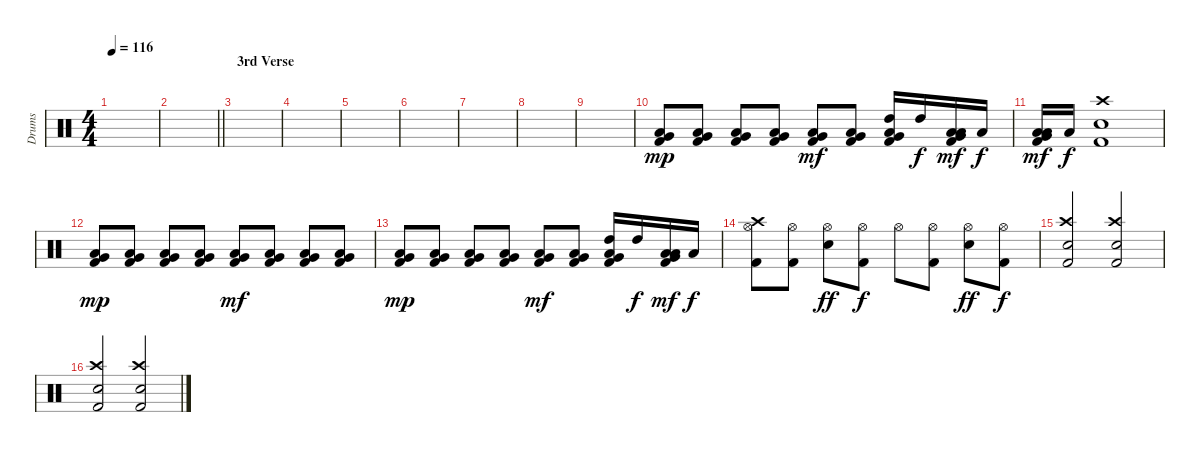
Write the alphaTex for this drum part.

\track ("Drums" "Drums") {instrument percussion}
\staff {score}
\articulation defaults
\ts (4 4)
\tempo 116
\clef neutral
\ks c
|
\barLineRight lightlight
|
\section ("" "3rd Verse")
|
|
|
|
|
|
|
("Very Low Tom (hit)" "Low Tom (hit)" "Kick (hit) 2").8{dy mp} ("Very Low Tom (hit)" "Low Tom (hit)" "Kick (hit) 2").8 ("Very Low Tom (hit)" "Low Tom (hit)" "Kick (hit) 2").8 ("Very Low Tom (hit)" "Low Tom (hit)" "Kick (hit) 2").8 ("Very Low Tom (hit)" "Low Tom (hit)" "Kick (hit) 2").8{dy mf} ("Very Low Tom (hit)" "Low Tom (hit)" "Kick (hit) 2").8 ("Very Low Tom (hit)" "Low Tom (hit)" "High Tom (hit)" "Kick (hit) 2").16 "High Tom (hit)".16{dy f} ("Very Low Tom (hit)" "Low Tom (hit)" "Low Tom (hit)" "Kick (hit) 2").16{dy mf} "Low Tom (hit)".16{dy f} |
("Very Low Tom (hit)" "Low Tom (hit)" "Low Tom (hit)" "Kick (hit) 2").16{dy mf} "Low Tom (hit)".16{dy f} ("Crash high (hit)" "Snare (hit) 2" "Kick (hit) 2").1 |
("Very Low Tom (hit)" "Low Tom (hit)" "Kick (hit) 2").8{dy mp} ("Very Low Tom (hit)" "Low Tom (hit)" "Kick (hit) 2").8 ("Very Low Tom (hit)" "Low Tom (hit)" "Kick (hit) 2").8 ("Very Low Tom (hit)" "Low Tom (hit)" "Kick (hit) 2").8 ("Very Low Tom (hit)" "Low Tom (hit)" "Kick (hit) 2").8{dy mf} ("Very Low Tom (hit)" "Low Tom (hit)" "Kick (hit) 2").8 ("Very Low Tom (hit)" "Low Tom (hit)" "Kick (hit) 2").8 ("Very Low Tom (hit)" "Low Tom (hit)" "Kick (hit) 2").8 |
("Very Low Tom (hit)" "Low Tom (hit)" "Kick (hit) 2").8{dy mp} ("Very Low Tom (hit)" "Low Tom (hit)" "Kick (hit) 2").8 ("Very Low Tom (hit)" "Low Tom (hit)" "Kick (hit) 2").8 ("Very Low Tom (hit)" "Low Tom (hit)" "Kick (hit) 2").8 ("Very Low Tom (hit)" "Low Tom (hit)" "Kick (hit) 2").8{dy mf} ("Very Low Tom (hit)" "Low Tom (hit)" "Kick (hit) 2").8 ("Very Low Tom (hit)" "Low Tom (hit)" "High Tom (hit)" "Kick (hit) 2").16 "High Tom (hit)".16{dy f} ("Very Low Tom (hit)" "Low Tom (hit)" "Low Tom (hit)" "Kick (hit) 2").16{dy mf} "Low Tom (hit)".16{dy f} |
("Crash high (hit)" "Hi-Hat (open)" "Kick (hit) 2").8 ("Hi-Hat (open)" "Kick (hit) 2").8 ("Hi-Hat (open)" "Snare (hit) 2").8{dy ff} ("Hi-Hat (open)" "Kick (hit) 2").8{dy f} "Hi-Hat (open)".8 ("Hi-Hat (open)" "Kick (hit) 2").8 ("Hi-Hat (open)" "Snare (hit) 2").8{dy ff} ("Hi-Hat (open)" "Kick (hit) 2").8{dy f} |
("Crash high (hit)" "Snare (hit) 2" "Kick (hit) 2").2 ("Crash high (hit)" "Snare (hit) 2" "Kick (hit) 2").2 |
("Crash high (hit)" "Snare (hit) 2" "Kick (hit) 2").2 ("Crash high (hit)" "Snare (hit) 2" "Kick (hit) 2").2
